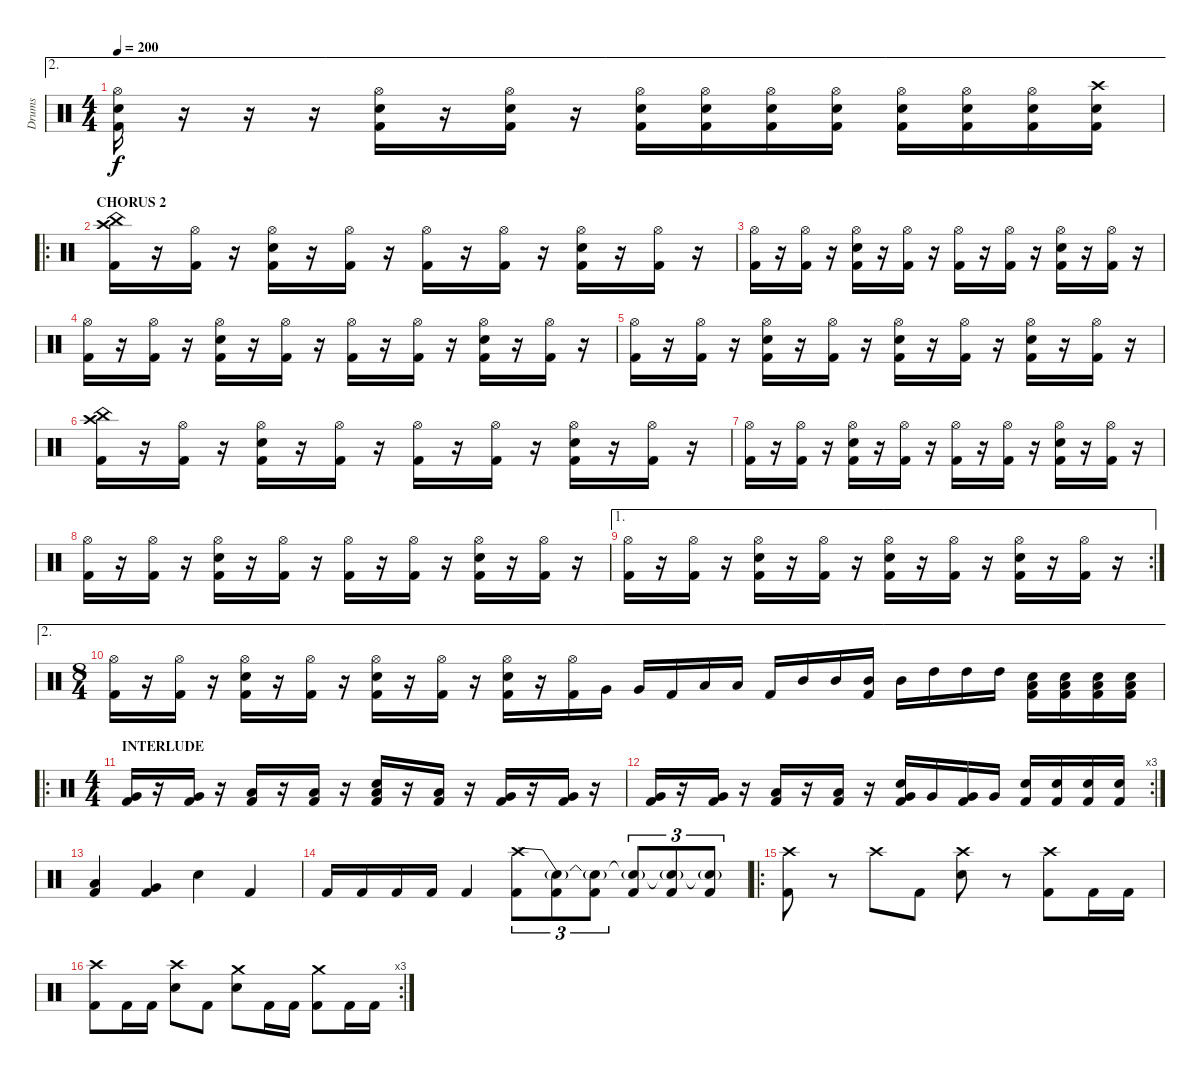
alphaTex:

\track ("Drums" "Drums") {instrument percussion}
\staff {score}
\articulation defaults
\ae 2
\ts (4 4)
\tempo 200
\clef neutral
\ks c
("Hi-Hat (open)" "Electric Snare (hit)" "Kick (hit) 2").16{dy f} r.16 r.16 r.16 ("Hi-Hat (open)" "Electric Snare (hit)" "Kick (hit) 2").16 r.16 ("Hi-Hat (open)" "Electric Snare (hit)" "Kick (hit) 2").16 r.16 ("Hi-Hat (open)" "Electric Snare (hit)" "Kick (hit) 2").16 ("Hi-Hat (open)" "Electric Snare (hit)" "Kick (hit) 2").16 ("Hi-Hat (open)" "Electric Snare (hit)" "Kick (hit) 2").16 ("Hi-Hat (open)" "Electric Snare (hit)" "Kick (hit) 2").16 ("Hi-Hat (open)" "Electric Snare (hit)" "Kick (hit) 2").16 ("Hi-Hat (open)" "Electric Snare (hit)" "Kick (hit) 2").16 ("Hi-Hat (open)" "Electric Snare (hit)" "Kick (hit) 2").16 ("Crash high (hit)" "Electric Snare (hit)" "Kick (hit) 2").16 |
\ro
\section ("" "CHORUS 2")
("Crash high (hit)" "China (hit)" "Kick (hit) 2").16 r.16 ("Hi-Hat (open)" "Kick (hit) 2").16 r.16 ("Hi-Hat (open)" "Electric Snare (hit)" "Kick (hit) 2").16 r.16 ("Hi-Hat (open)" "Kick (hit) 2").16 r.16 ("Hi-Hat (open)" "Kick (hit) 2").16 r.16 ("Hi-Hat (open)" "Kick (hit) 2").16 r.16 ("Hi-Hat (open)" "Electric Snare (hit)" "Kick (hit) 2").16 r.16 ("Hi-Hat (open)" "Kick (hit) 2").16 r.16 |
("Hi-Hat (open)" "Kick (hit) 2").16 r.16 ("Hi-Hat (open)" "Kick (hit) 2").16 r.16 ("Hi-Hat (open)" "Electric Snare (hit)" "Kick (hit) 2").16 r.16 ("Hi-Hat (open)" "Kick (hit) 2").16 r.16 ("Hi-Hat (open)" "Kick (hit) 2").16 r.16 ("Hi-Hat (open)" "Kick (hit) 2").16 r.16 ("Hi-Hat (open)" "Electric Snare (hit)" "Kick (hit) 2").16 r.16 ("Hi-Hat (open)" "Kick (hit) 2").16 r.16 |
("Hi-Hat (open)" "Kick (hit) 2").16 r.16 ("Hi-Hat (open)" "Kick (hit) 2").16 r.16 ("Hi-Hat (open)" "Electric Snare (hit)" "Kick (hit) 2").16 r.16 ("Hi-Hat (open)" "Kick (hit) 2").16 r.16 ("Hi-Hat (open)" "Kick (hit) 2").16 r.16 ("Hi-Hat (open)" "Kick (hit) 2").16 r.16 ("Hi-Hat (open)" "Electric Snare (hit)" "Kick (hit) 2").16 r.16 ("Hi-Hat (open)" "Kick (hit) 2").16 r.16 |
("Hi-Hat (open)" "Kick (hit) 2").16 r.16 ("Hi-Hat (open)" "Kick (hit) 2").16 r.16 ("Hi-Hat (open)" "Electric Snare (hit)" "Kick (hit) 2").16 r.16 ("Hi-Hat (open)" "Kick (hit) 2").16 r.16 ("Hi-Hat (open)" "Electric Snare (hit)" "Kick (hit) 2").16 r.16 ("Hi-Hat (open)" "Kick (hit) 2").16 r.16 ("Hi-Hat (open)" "Electric Snare (hit)" "Kick (hit) 2").16 r.16 ("Hi-Hat (open)" "Kick (hit) 2").16 r.16 |
("Crash high (hit)" "China (hit)" "Kick (hit) 2").16 r.16 ("Hi-Hat (open)" "Kick (hit) 2").16 r.16 ("Hi-Hat (open)" "Electric Snare (hit)" "Kick (hit) 2").16 r.16 ("Hi-Hat (open)" "Kick (hit) 2").16 r.16 ("Hi-Hat (open)" "Kick (hit) 2").16 r.16 ("Hi-Hat (open)" "Kick (hit) 2").16 r.16 ("Hi-Hat (open)" "Electric Snare (hit)" "Kick (hit) 2").16 r.16 ("Hi-Hat (open)" "Kick (hit) 2").16 r.16 |
("Hi-Hat (open)" "Kick (hit) 2").16 r.16 ("Hi-Hat (open)" "Kick (hit) 2").16 r.16 ("Hi-Hat (open)" "Electric Snare (hit)" "Kick (hit) 2").16 r.16 ("Hi-Hat (open)" "Kick (hit) 2").16 r.16 ("Hi-Hat (open)" "Kick (hit) 2").16 r.16 ("Hi-Hat (open)" "Kick (hit) 2").16 r.16 ("Hi-Hat (open)" "Electric Snare (hit)" "Kick (hit) 2").16 r.16 ("Hi-Hat (open)" "Kick (hit) 2").16 r.16 |
("Hi-Hat (open)" "Kick (hit) 2").16 r.16 ("Hi-Hat (open)" "Kick (hit) 2").16 r.16 ("Hi-Hat (open)" "Electric Snare (hit)" "Kick (hit) 2").16 r.16 ("Hi-Hat (open)" "Kick (hit) 2").16 r.16 ("Hi-Hat (open)" "Kick (hit) 2").16 r.16 ("Hi-Hat (open)" "Kick (hit) 2").16 r.16 ("Hi-Hat (open)" "Electric Snare (hit)" "Kick (hit) 2").16 r.16 ("Hi-Hat (open)" "Kick (hit) 2").16 r.16 |
\ae 1
\rc 2
("Hi-Hat (open)" "Kick (hit) 2").16 r.16 ("Hi-Hat (open)" "Kick (hit) 2").16 r.16 ("Hi-Hat (open)" "Electric Snare (hit)" "Kick (hit) 2").16 r.16 ("Hi-Hat (open)" "Kick (hit) 2").16 r.16 ("Hi-Hat (open)" "Electric Snare (hit)" "Kick (hit) 2").16 r.16 ("Hi-Hat (open)" "Kick (hit) 2").16 r.16 ("Hi-Hat (open)" "Electric Snare (hit)" "Kick (hit) 2").16 r.16 ("Hi-Hat (open)" "Kick (hit) 2").16 r.16 |
\ae 2
\ts (8 4)
("Hi-Hat (open)" "Kick (hit) 2").16 r.16 ("Hi-Hat (open)" "Kick (hit) 2").16 r.16 ("Hi-Hat (open)" "Electric Snare (hit)" "Kick (hit) 2").16 r.16 ("Hi-Hat (open)" "Kick (hit) 2").16 r.16 ("Hi-Hat (open)" "Electric Snare (hit)" "Kick (hit) 2").16 r.16 ("Hi-Hat (open)" "Kick (hit) 2").16 r.16 ("Hi-Hat (open)" "Electric Snare (hit)" "Kick (hit) 2").16 r.16 ("Hi-Hat (open)" "Kick (hit) 2").16 "Very Low Tom (hit)".16 "Very Low Tom (hit)".16 "Kick (hit) 2".16 "Low Tom (hit)".16 "Low Tom (hit)".16 "Kick (hit) 2".16 "Mid Tom (hit)".16 "Mid Tom (hit)".16 ("Mid Tom (hit)" "Kick (hit) 2").16 "Mid Tom (hit)".16 "High Tom (hit)".16 "High Tom (hit)".16 "High Tom (hit)".16 ("Electric Snare (hit)" "Low Floor Tom (hit)" "Kick (hit) 2").16 ("Electric Snare (hit)" "Low Floor Tom (hit)" "Kick (hit) 2").16 ("Electric Snare (hit)" "Low Floor Tom (hit)" "Kick (hit) 2").16 ("Electric Snare (hit)" "Low Floor Tom (hit)" "Kick (hit) 2").16 |
\ro
\ts (4 4)
\section ("" "INTERLUDE")
("Very Low Tom (hit)" "Kick (hit) 2").16 r.16 ("Very Low Tom (hit)" "Kick (hit) 2").16 r.16 ("Low Tom (hit)" "Kick (hit) 2").16 r.16 ("Low Tom (hit)" "Kick (hit) 2").16 r.16 ("Electric Snare (hit)" "Low Tom (hit)" "Kick (hit) 2").16 r.16 ("Low Tom (hit)" "Kick (hit) 2").16 r.16 ("Very Low Tom (hit)" "Kick (hit) 2").16 r.16 ("Very Low Tom (hit)" "Kick (hit) 2").16 r.16 |
\rc 3
("Very Low Tom (hit)" "Kick (hit) 2").16 r.16 ("Very Low Tom (hit)" "Kick (hit) 2").16 r.16 ("Low Tom (hit)" "Kick (hit) 2").16 r.16 ("Low Tom (hit)" "Kick (hit) 2").16 r.16 ("Electric Snare (hit)" "Very Low Tom (hit)" "Kick (hit) 2").16 "Very Low Tom (hit)".16 ("Very Low Tom (hit)" "Kick (hit) 2").16 "Very Low Tom (hit)".16 ("Electric Snare (hit)" "Kick (hit) 2").16 ("Electric Snare (hit)" "Kick (hit) 2").16 ("Electric Snare (hit)" "Kick (hit) 2").16 ("Electric Snare (hit)" "Kick (hit) 2").16 |
("Low Tom (hit)" "Kick (hit) 2").4 ("Very Low Tom (hit)" "Kick (hit) 2").4 "Electric Snare (hit)".4 "Kick (hit) 2".4 |
"Kick (hit) 2".16 "Kick (hit) 2".16 "Kick (hit) 2".16 "Kick (hit) 2".16 "Kick (hit) 2".4 ("Crash high (hit)"{be (bend 0 0 60 1)} "Kick (hit) 2").8{tu (3 2)} ("Snare (hit)"{t} "Kick (hit) 2").8{tu (3 2)} ("Snare (hit)"{t} "Kick (hit) 2").8{tu (3 2)} ("Snare (hit)"{t} "Kick (hit) 2").8{tu (3 2)} ("Snare (hit)"{t} "Kick (hit) 2").8{tu (3 2)} ("Snare (hit)"{t} "Kick (hit) 2").8{tu (3 2)} |
\ro
("Crash high (hit)" "Kick (hit) 2").8 r.8 "Crash high (hit)".8 "Kick (hit) 2".8 ("Crash high (hit)" "Electric Snare (hit)").8 r.8 ("Crash high (hit)" "Kick (hit) 2").8 "Kick (hit) 2".16 "Kick (hit) 2".16 |
\rc 3
("Crash high (hit)" "Kick (hit) 2").8 "Kick (hit) 2".16 "Kick (hit) 2".16 ("Crash high (hit)" "Electric Snare (hit)").8 "Kick (hit) 2".8 ("Crash medium (hit)" "Electric Snare (hit)").8 "Kick (hit) 2".16 "Kick (hit) 2".16 ("Crash medium (hit)" "Kick (hit) 2").8 "Kick (hit) 2".16 "Kick (hit) 2".16
